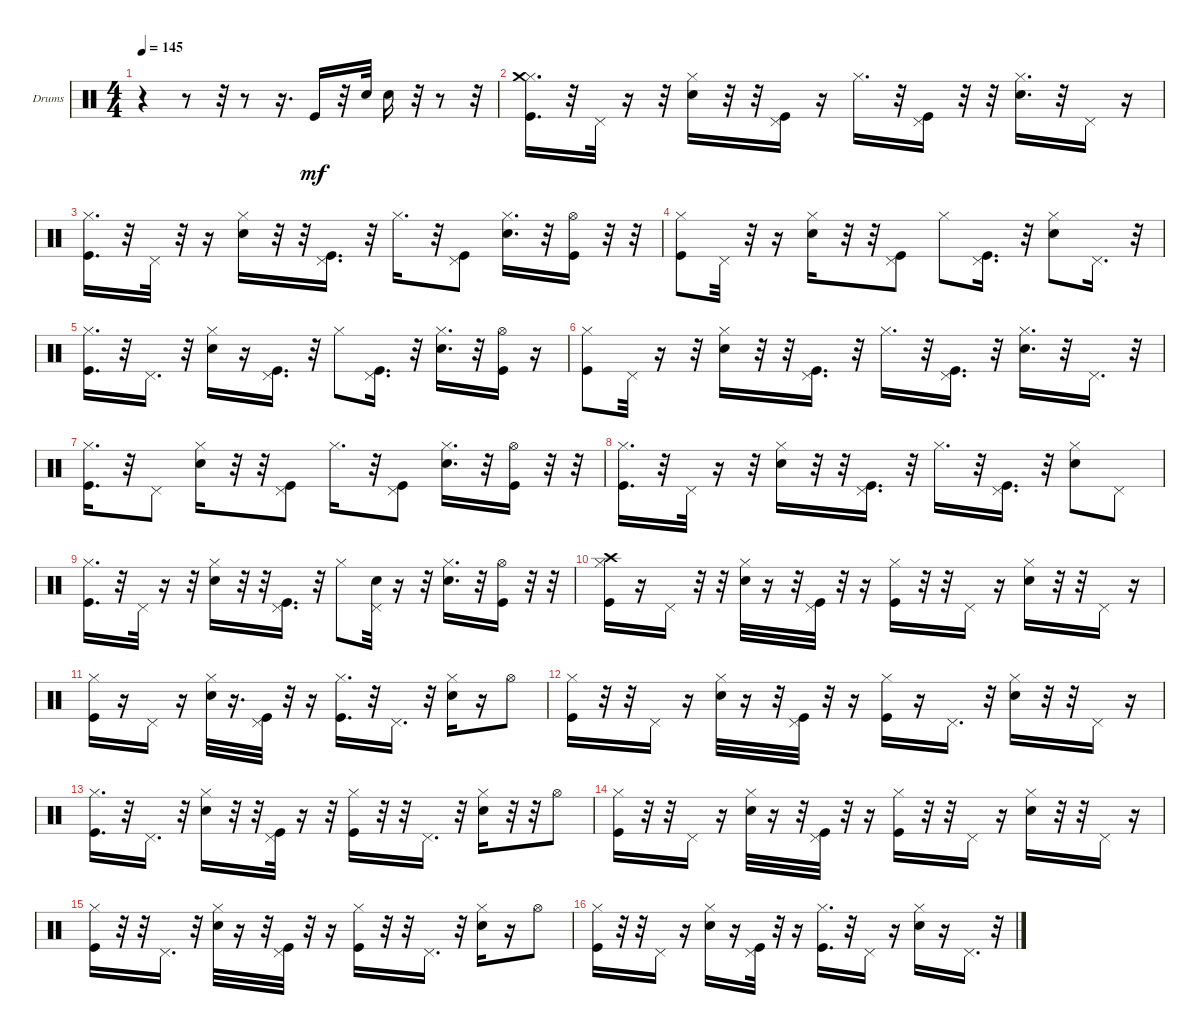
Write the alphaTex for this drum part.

\defaultSystemsLayout 4
\bracketExtendMode groupsimilarinstruments
\firstSystemTrackNameOrientation horizontal
\otherSystemsTrackNameOrientation horizontal
\track ("Drumkit" "Drums") {instrument percussion}
\staff {score}
\articulation defaults
\ts (4 4)
\tempo 145
\clef neutral
\scale
0.474178
\ks c
r.4{dy mf} r.8 r.32 r.8 r.16{d} "Kick (hit)".16 r.32 "Snare (hit) 2".32 "Snare (hit) 2".16 r.32 r.8 r.32 |
\scale
0.262911 ("Kick (hit)" "Hi-Hat (closed)" "Crash medium (hit)").16{d} r.32 "Pedal Hi-Hat (hit)".32 r.16 r.32 ("Snare (hit) 2" "Hi-Hat (closed)").16 r.32 r.32 ("Pedal Hi-Hat (hit)" "Kick (hit)").16 r.16 "Hi-Hat (closed)".16{d} r.32 ("Pedal Hi-Hat (hit)" "Kick (hit)").16 r.32 r.32 ("Snare (hit) 2" "Hi-Hat (closed)").16{d} r.32 "Pedal Hi-Hat (hit)".16 r.16 |
\scale
0.262911 ("Hi-Hat (closed)" "Kick (hit)").16{d} r.32 "Pedal Hi-Hat (hit)".32 r.32 r.16 ("Snare (hit) 2" "Hi-Hat (closed)").16 r.32 r.32 ("Pedal Hi-Hat (hit)" "Kick (hit)").16{d} r.32 "Hi-Hat (closed)".16{d} r.32 ("Pedal Hi-Hat (hit)" "Kick (hit)").8 ("Snare (hit) 2" "Hi-Hat (closed)").16{d} r.32 ("Hi-Hat (open)" "Kick (hit)").16 r.32 r.32 |
\scale
0.333333 ("Kick (hit)" "Hi-Hat (closed)").8 "Pedal Hi-Hat (hit)".32 r.32 r.16 ("Snare (hit) 2" "Hi-Hat (closed)").16 r.32 r.32 ("Pedal Hi-Hat (hit)" "Kick (hit)").8 "Hi-Hat (closed)".8 ("Kick (hit)" "Pedal Hi-Hat (hit)").16{d} r.32 ("Snare (hit) 2" "Hi-Hat (closed)").8 "Pedal Hi-Hat (hit)".16{d} r.32 |
\scale
0.333333 ("Hi-Hat (closed)" "Kick (hit)").16{d} r.32 "Pedal Hi-Hat (hit)".16{d} r.32 ("Snare (hit) 2" "Hi-Hat (closed)").16 r.16 ("Pedal Hi-Hat (hit)" "Kick (hit)").16{d} r.32 "Hi-Hat (closed)".8 ("Pedal Hi-Hat (hit)" "Kick (hit)").16{d} r.32 ("Snare (hit) 2" "Hi-Hat (closed)").16{d} r.32 ("Hi-Hat (open)" "Kick (hit)").16 r.16 |
\scale
0.333333 ("Hi-Hat (closed)" "Kick (hit)").8 "Pedal Hi-Hat (hit)".32 r.16 r.32 ("Snare (hit) 2" "Hi-Hat (closed)").16 r.32 r.32 ("Kick (hit)" "Pedal Hi-Hat (hit)").16{d} r.32 "Hi-Hat (closed)".16{d} r.32 ("Kick (hit)" "Pedal Hi-Hat (hit)").16{d} r.32 ("Snare (hit) 2" "Hi-Hat (closed)").16{d} r.32 "Pedal Hi-Hat (hit)".16{d} r.32 |
\scale
0.333333 ("Kick (hit)" "Hi-Hat (closed)").16{d} r.32 "Pedal Hi-Hat (hit)".8 ("Snare (hit) 2" "Hi-Hat (closed)").16 r.32 r.32 ("Pedal Hi-Hat (hit)" "Kick (hit)").8 "Hi-Hat (closed)".16{d} r.32 ("Pedal Hi-Hat (hit)" "Kick (hit)").8 ("Snare (hit) 2" "Hi-Hat (closed)").16{d} r.32 ("Hi-Hat (open)" "Kick (hit)").16 r.32 r.32 |
\scale
0.333333 ("Hi-Hat (closed)" "Kick (hit)").16{d} r.32 "Pedal Hi-Hat (hit)".32 r.16 r.32 ("Snare (hit) 2" "Hi-Hat (closed)").16 r.32 r.32 ("Pedal Hi-Hat (hit)" "Kick (hit)").16{d} r.32 "Hi-Hat (closed)".16{d} r.32 ("Pedal Hi-Hat (hit)" "Kick (hit)").16{d} r.32 ("Snare (hit) 2" "Hi-Hat (closed)").8 "Pedal Hi-Hat (hit)".8 |
\scale
0.333333 ("Kick (hit)" "Hi-Hat (closed)").16{d} r.32 "Pedal Hi-Hat (hit)".32 r.16 r.32 ("Snare (hit) 2" "Hi-Hat (closed)").16 r.32 r.32 ("Pedal Hi-Hat (hit)" "Kick (hit)").16{d} r.32 "Hi-Hat (closed)".8 ("Snare (hit) 2" "Pedal Hi-Hat (hit)").32 r.16 r.32 ("Snare (hit) 2" "Hi-Hat (closed)").16{d} r.32 ("Hi-Hat (open)" "Kick (hit)").16 r.32 r.32 |
\scale
0.333333 ("Crash high (hit)" "Kick (hit)" "Hi-Hat (closed)").16 r.16 "Pedal Hi-Hat (hit)".16 r.32 r.32 ("Snare (hit) 2" "Hi-Hat (closed)").32 r.16 r.32 ("Kick (hit)" "Pedal Hi-Hat (hit)").32 r.32 r.16 ("Kick (hit)" "Hi-Hat (closed)").16 r.32 r.32 "Pedal Hi-Hat (hit)".16 r.16 ("Snare (hit) 2" "Hi-Hat (closed)").16 r.32 r.32 "Pedal Hi-Hat (hit)".16 r.16 |
\scale
0.333333 ("Kick (hit)" "Hi-Hat (closed)").16 r.16 "Pedal Hi-Hat (hit)".16 r.16 ("Snare (hit) 2" "Hi-Hat (closed)").32 r.16{d} ("Pedal Hi-Hat (hit)" "Kick (hit)").32 r.32 r.16 ("Hi-Hat (closed)" "Kick (hit)").16{d} r.32 "Pedal Hi-Hat (hit)".16{d} r.32 ("Snare (hit) 2" "Hi-Hat (closed)").16 r.16 "Hi-Hat (open)".8 |
\scale
0.333333 ("Kick (hit)" "Hi-Hat (closed)").16 r.32 r.32 "Pedal Hi-Hat (hit)".16 r.16 ("Snare (hit) 2" "Hi-Hat (closed)").32 r.16 r.32 ("Kick (hit)" "Pedal Hi-Hat (hit)").32 r.32 r.16 ("Hi-Hat (closed)" "Kick (hit)").16 r.16 "Pedal Hi-Hat (hit)".16{d} r.32 ("Snare (hit) 2" "Hi-Hat (closed)").16 r.32 r.32 "Pedal Hi-Hat (hit)".16 r.16 |
\scale
0.333333 ("Hi-Hat (closed)" "Kick (hit)").16{d} r.32 "Pedal Hi-Hat (hit)".16{d} r.32 ("Snare (hit) 2" "Hi-Hat (closed)").16 r.32 r.32 ("Pedal Hi-Hat (hit)" "Kick (hit)").32 r.16 r.32 ("Hi-Hat (closed)" "Kick (hit)").16 r.32 r.32 "Pedal Hi-Hat (hit)".16{d} r.32 ("Snare (hit) 2" "Hi-Hat (closed)").16 r.32 r.32 "Hi-Hat (open)".8 |
\scale
0.333333 ("Kick (hit)" "Hi-Hat (closed)").16 r.32 r.32 "Pedal Hi-Hat (hit)".16 r.16 ("Snare (hit) 2" "Hi-Hat (closed)").32 r.16 r.32 ("Kick (hit)" "Pedal Hi-Hat (hit)").32 r.32 r.16 ("Kick (hit)" "Hi-Hat (closed)").16 r.32 r.32 "Pedal Hi-Hat (hit)".16 r.16 ("Snare (hit) 2" "Hi-Hat (closed)").16 r.32 r.32 "Pedal Hi-Hat (hit)".16 r.16 |
\scale
0.333333 ("Kick (hit)" "Hi-Hat (closed)").16 r.32 r.32 "Pedal Hi-Hat (hit)".16{d} r.32 ("Snare (hit) 2" "Hi-Hat (closed)").32 r.16 r.32 ("Kick (hit)" "Pedal Hi-Hat (hit)").32 r.32 r.16 ("Hi-Hat (closed)" "Kick (hit)").16 r.32 r.32 "Pedal Hi-Hat (hit)".16{d} r.32 ("Snare (hit) 2" "Hi-Hat (closed)").16 r.16 "Hi-Hat (open)".8 |
\scale
0.333333 ("Kick (hit)" "Hi-Hat (closed)").16 r.32 r.32 "Pedal Hi-Hat (hit)".16 r.16 ("Snare (hit) 2" "Hi-Hat (closed)").16 r.16 ("Kick (hit)" "Pedal Hi-Hat (hit)").32 r.32 r.16 ("Kick (hit)" "Hi-Hat (closed)").16{d} r.32 "Pedal Hi-Hat (hit)".16 r.16 ("Snare (hit) 2" "Hi-Hat (closed)").16 r.16 "Pedal Hi-Hat (hit)".16{d} r.32
